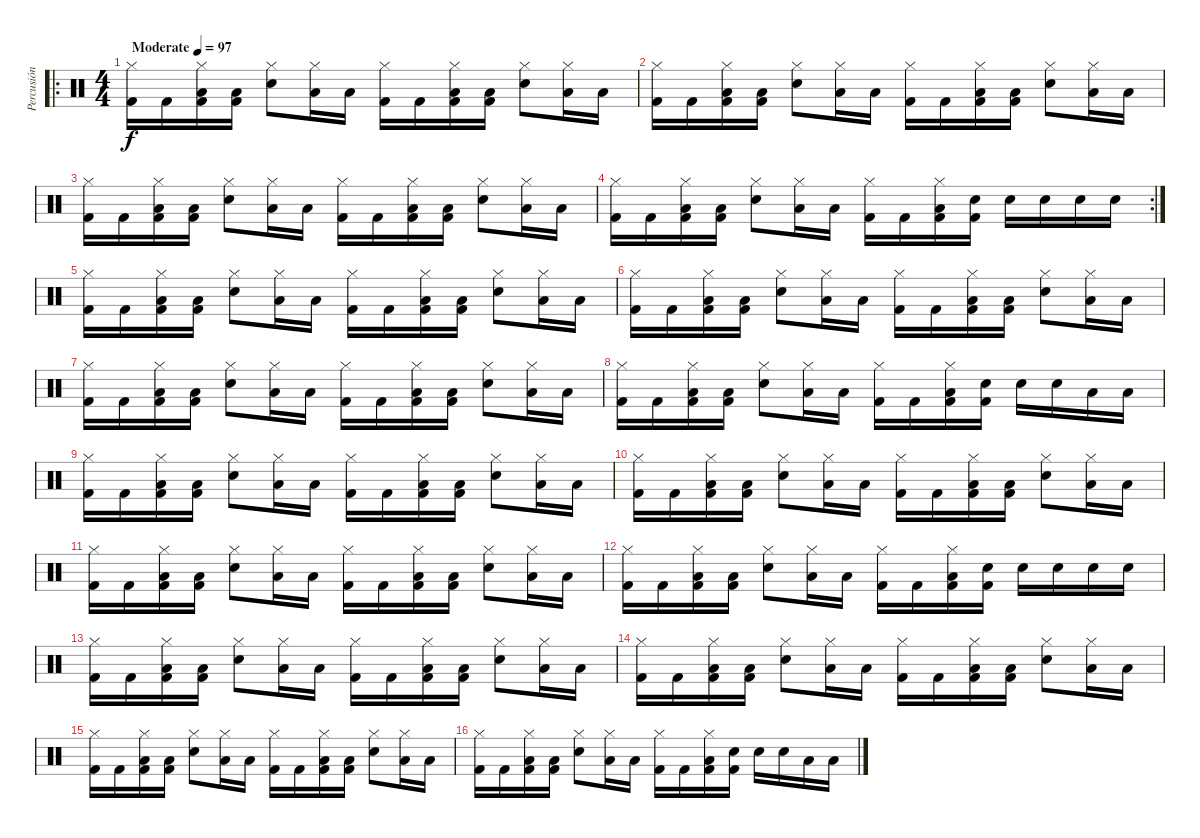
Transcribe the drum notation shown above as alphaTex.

\track ("Percusión" "Percusión") {instrument percussion}
\staff {score}
\articulation defaults
\ro
\ts (4 4)
\tempo (97 "Moderate")
\clef neutral
\ks c
("Hi-Hat (closed)" "Kick (hit) 2").16{dy f} "Kick (hit) 2".16 ("Hi-Hat (closed)" "Low Floor Tom (hit)" "Kick (hit) 2").16 ("Low Floor Tom (hit)" "Kick (hit) 2").16 ("Hi-Hat (closed)" "Snare (hit) 2").8 ("Hi-Hat (closed)" "Low Floor Tom (hit)").16 "Low Floor Tom (hit)".16 ("Hi-Hat (closed)" "Kick (hit) 2").16 "Kick (hit) 2".16 ("Hi-Hat (closed)" "Low Floor Tom (hit)" "Kick (hit) 2").16 ("Low Floor Tom (hit)" "Kick (hit) 2").16 ("Hi-Hat (closed)" "Snare (hit) 2").8 ("Hi-Hat (closed)" "Low Floor Tom (hit)").16 "Low Floor Tom (hit)".16 |
("Hi-Hat (closed)" "Kick (hit) 2").16 "Kick (hit) 2".16 ("Hi-Hat (closed)" "Low Floor Tom (hit)" "Kick (hit) 2").16 ("Low Floor Tom (hit)" "Kick (hit) 2").16 ("Hi-Hat (closed)" "Snare (hit) 2").8 ("Hi-Hat (closed)" "Low Floor Tom (hit)").16 "Low Floor Tom (hit)".16 ("Hi-Hat (closed)" "Kick (hit) 2").16 "Kick (hit) 2".16 ("Hi-Hat (closed)" "Low Floor Tom (hit)" "Kick (hit) 2").16 ("Low Floor Tom (hit)" "Kick (hit) 2").16 ("Hi-Hat (closed)" "Snare (hit) 2").8 ("Hi-Hat (closed)" "Low Floor Tom (hit)").16 "Low Floor Tom (hit)".16 |
("Hi-Hat (closed)" "Kick (hit) 2").16 "Kick (hit) 2".16 ("Hi-Hat (closed)" "Low Floor Tom (hit)" "Kick (hit) 2").16 ("Low Floor Tom (hit)" "Kick (hit) 2").16 ("Hi-Hat (closed)" "Snare (hit) 2").8 ("Hi-Hat (closed)" "Low Floor Tom (hit)").16 "Low Floor Tom (hit)".16 ("Hi-Hat (closed)" "Kick (hit) 2").16 "Kick (hit) 2".16 ("Hi-Hat (closed)" "Low Floor Tom (hit)" "Kick (hit) 2").16 ("Low Floor Tom (hit)" "Kick (hit) 2").16 ("Hi-Hat (closed)" "Snare (hit) 2").8 ("Hi-Hat (closed)" "Low Floor Tom (hit)").16 "Low Floor Tom (hit)".16 |
\rc 2
("Hi-Hat (closed)" "Kick (hit) 2").16 "Kick (hit) 2".16 ("Hi-Hat (closed)" "Low Floor Tom (hit)" "Kick (hit) 2").16 ("Low Floor Tom (hit)" "Kick (hit) 2").16 ("Hi-Hat (closed)" "Snare (hit) 2").8 ("Hi-Hat (closed)" "Low Floor Tom (hit)").16 "Low Floor Tom (hit)".16 ("Hi-Hat (closed)" "Kick (hit) 2").16 "Kick (hit) 2".16 ("Hi-Hat (closed)" "Low Floor Tom (hit)" "Kick (hit) 2").16 ("Snare (hit) 2" "Kick (hit) 2").16 "Snare (hit) 2".16 "Snare (hit) 2".16 "Snare (hit) 2".16 "Snare (hit) 2".16 |
("Hi-Hat (closed)" "Kick (hit) 2").16 "Kick (hit) 2".16 ("Hi-Hat (closed)" "Low Floor Tom (hit)" "Kick (hit) 2").16 ("Low Floor Tom (hit)" "Kick (hit) 2").16 ("Hi-Hat (closed)" "Snare (hit) 2").8 ("Hi-Hat (closed)" "Low Floor Tom (hit)").16 "Low Floor Tom (hit)".16 ("Hi-Hat (closed)" "Kick (hit) 2").16 "Kick (hit) 2".16 ("Hi-Hat (closed)" "Low Floor Tom (hit)" "Kick (hit) 2").16 ("Low Floor Tom (hit)" "Kick (hit) 2").16 ("Hi-Hat (closed)" "Snare (hit) 2").8 ("Hi-Hat (closed)" "Low Floor Tom (hit)").16 "Low Floor Tom (hit)".16 |
("Hi-Hat (closed)" "Kick (hit) 2").16 "Kick (hit) 2".16 ("Hi-Hat (closed)" "Low Floor Tom (hit)" "Kick (hit) 2").16 ("Low Floor Tom (hit)" "Kick (hit) 2").16 ("Hi-Hat (closed)" "Snare (hit) 2").8 ("Hi-Hat (closed)" "Low Floor Tom (hit)").16 "Low Floor Tom (hit)".16 ("Hi-Hat (closed)" "Kick (hit) 2").16 "Kick (hit) 2".16 ("Hi-Hat (closed)" "Low Floor Tom (hit)" "Kick (hit) 2").16 ("Low Floor Tom (hit)" "Kick (hit) 2").16 ("Hi-Hat (closed)" "Snare (hit) 2").8 ("Hi-Hat (closed)" "Low Floor Tom (hit)").16 "Low Floor Tom (hit)".16 |
("Hi-Hat (closed)" "Kick (hit) 2").16 "Kick (hit) 2".16 ("Hi-Hat (closed)" "Low Floor Tom (hit)" "Kick (hit) 2").16 ("Low Floor Tom (hit)" "Kick (hit) 2").16 ("Hi-Hat (closed)" "Snare (hit) 2").8 ("Hi-Hat (closed)" "Low Floor Tom (hit)").16 "Low Floor Tom (hit)".16 ("Hi-Hat (closed)" "Kick (hit) 2").16 "Kick (hit) 2".16 ("Hi-Hat (closed)" "Low Floor Tom (hit)" "Kick (hit) 2").16 ("Low Floor Tom (hit)" "Kick (hit) 2").16 ("Hi-Hat (closed)" "Snare (hit) 2").8 ("Hi-Hat (closed)" "Low Floor Tom (hit)").16 "Low Floor Tom (hit)".16 |
("Hi-Hat (closed)" "Kick (hit) 2").16 "Kick (hit) 2".16 ("Hi-Hat (closed)" "Low Floor Tom (hit)" "Kick (hit) 2").16 ("Low Floor Tom (hit)" "Kick (hit) 2").16 ("Hi-Hat (closed)" "Snare (hit) 2").8 ("Hi-Hat (closed)" "Low Floor Tom (hit)").16 "Low Floor Tom (hit)".16 ("Hi-Hat (closed)" "Kick (hit) 2").16 "Kick (hit) 2".16 ("Hi-Hat (closed)" "Low Floor Tom (hit)" "Kick (hit) 2").16 ("Snare (hit) 2" "Kick (hit) 2").16 "Snare (hit) 2".16 "Snare (hit) 2".16 "Low Floor Tom (hit)".16 "Low Floor Tom (hit)".16 |
("Hi-Hat (closed)" "Kick (hit) 2").16 "Kick (hit) 2".16 ("Hi-Hat (closed)" "Low Floor Tom (hit)" "Kick (hit) 2").16 ("Low Floor Tom (hit)" "Kick (hit) 2").16 ("Hi-Hat (closed)" "Snare (hit) 2").8 ("Hi-Hat (closed)" "Low Floor Tom (hit)").16 "Low Floor Tom (hit)".16 ("Hi-Hat (closed)" "Kick (hit) 2").16 "Kick (hit) 2".16 ("Hi-Hat (closed)" "Low Floor Tom (hit)" "Kick (hit) 2").16 ("Low Floor Tom (hit)" "Kick (hit) 2").16 ("Hi-Hat (closed)" "Snare (hit) 2").8 ("Hi-Hat (closed)" "Low Floor Tom (hit)").16 "Low Floor Tom (hit)".16 |
("Hi-Hat (closed)" "Kick (hit) 2").16 "Kick (hit) 2".16 ("Hi-Hat (closed)" "Low Floor Tom (hit)" "Kick (hit) 2").16 ("Low Floor Tom (hit)" "Kick (hit) 2").16 ("Hi-Hat (closed)" "Snare (hit) 2").8 ("Hi-Hat (closed)" "Low Floor Tom (hit)").16 "Low Floor Tom (hit)".16 ("Hi-Hat (closed)" "Kick (hit) 2").16 "Kick (hit) 2".16 ("Hi-Hat (closed)" "Low Floor Tom (hit)" "Kick (hit) 2").16 ("Low Floor Tom (hit)" "Kick (hit) 2").16 ("Hi-Hat (closed)" "Snare (hit) 2").8 ("Hi-Hat (closed)" "Low Floor Tom (hit)").16 "Low Floor Tom (hit)".16 |
("Hi-Hat (closed)" "Kick (hit) 2").16 "Kick (hit) 2".16 ("Hi-Hat (closed)" "Low Floor Tom (hit)" "Kick (hit) 2").16 ("Low Floor Tom (hit)" "Kick (hit) 2").16 ("Hi-Hat (closed)" "Snare (hit) 2").8 ("Hi-Hat (closed)" "Low Floor Tom (hit)").16 "Low Floor Tom (hit)".16 ("Hi-Hat (closed)" "Kick (hit) 2").16 "Kick (hit) 2".16 ("Hi-Hat (closed)" "Low Floor Tom (hit)" "Kick (hit) 2").16 ("Low Floor Tom (hit)" "Kick (hit) 2").16 ("Hi-Hat (closed)" "Snare (hit) 2").8 ("Hi-Hat (closed)" "Low Floor Tom (hit)").16 "Low Floor Tom (hit)".16 |
("Hi-Hat (closed)" "Kick (hit) 2").16 "Kick (hit) 2".16 ("Hi-Hat (closed)" "Low Floor Tom (hit)" "Kick (hit) 2").16 ("Low Floor Tom (hit)" "Kick (hit) 2").16 ("Hi-Hat (closed)" "Snare (hit) 2").8 ("Hi-Hat (closed)" "Low Floor Tom (hit)").16 "Low Floor Tom (hit)".16 ("Hi-Hat (closed)" "Kick (hit) 2").16 "Kick (hit) 2".16 ("Hi-Hat (closed)" "Low Floor Tom (hit)" "Kick (hit) 2").16 ("Snare (hit) 2" "Kick (hit) 2").16 "Snare (hit) 2".16 "Snare (hit) 2".16 "Snare (hit) 2".16 "Snare (hit) 2".16 |
("Hi-Hat (closed)" "Kick (hit) 2").16 "Kick (hit) 2".16 ("Hi-Hat (closed)" "Low Floor Tom (hit)" "Kick (hit) 2").16 ("Low Floor Tom (hit)" "Kick (hit) 2").16 ("Hi-Hat (closed)" "Snare (hit) 2").8 ("Hi-Hat (closed)" "Low Floor Tom (hit)").16 "Low Floor Tom (hit)".16 ("Hi-Hat (closed)" "Kick (hit) 2").16 "Kick (hit) 2".16 ("Hi-Hat (closed)" "Low Floor Tom (hit)" "Kick (hit) 2").16 ("Low Floor Tom (hit)" "Kick (hit) 2").16 ("Hi-Hat (closed)" "Snare (hit) 2").8 ("Hi-Hat (closed)" "Low Floor Tom (hit)").16 "Low Floor Tom (hit)".16 |
("Hi-Hat (closed)" "Kick (hit) 2").16 "Kick (hit) 2".16 ("Hi-Hat (closed)" "Low Floor Tom (hit)" "Kick (hit) 2").16 ("Low Floor Tom (hit)" "Kick (hit) 2").16 ("Hi-Hat (closed)" "Snare (hit) 2").8 ("Hi-Hat (closed)" "Low Floor Tom (hit)").16 "Low Floor Tom (hit)".16 ("Hi-Hat (closed)" "Kick (hit) 2").16 "Kick (hit) 2".16 ("Hi-Hat (closed)" "Low Floor Tom (hit)" "Kick (hit) 2").16 ("Low Floor Tom (hit)" "Kick (hit) 2").16 ("Hi-Hat (closed)" "Snare (hit) 2").8 ("Hi-Hat (closed)" "Low Floor Tom (hit)").16 "Low Floor Tom (hit)".16 |
("Hi-Hat (closed)" "Kick (hit) 2").16 "Kick (hit) 2".16 ("Hi-Hat (closed)" "Low Floor Tom (hit)" "Kick (hit) 2").16 ("Low Floor Tom (hit)" "Kick (hit) 2").16 ("Hi-Hat (closed)" "Snare (hit) 2").8 ("Hi-Hat (closed)" "Low Floor Tom (hit)").16 "Low Floor Tom (hit)".16 ("Hi-Hat (closed)" "Kick (hit) 2").16 "Kick (hit) 2".16 ("Hi-Hat (closed)" "Low Floor Tom (hit)" "Kick (hit) 2").16 ("Low Floor Tom (hit)" "Kick (hit) 2").16 ("Hi-Hat (closed)" "Snare (hit) 2").8 ("Hi-Hat (closed)" "Low Floor Tom (hit)").16 "Low Floor Tom (hit)".16 |
("Hi-Hat (closed)" "Kick (hit) 2").16 "Kick (hit) 2".16 ("Hi-Hat (closed)" "Low Floor Tom (hit)" "Kick (hit) 2").16 ("Low Floor Tom (hit)" "Kick (hit) 2").16 ("Hi-Hat (closed)" "Snare (hit) 2").8 ("Hi-Hat (closed)" "Low Floor Tom (hit)").16 "Low Floor Tom (hit)".16 ("Hi-Hat (closed)" "Kick (hit) 2").16 "Kick (hit) 2".16 ("Hi-Hat (closed)" "Low Floor Tom (hit)" "Kick (hit) 2").16 ("Snare (hit) 2" "Kick (hit) 2").16 "Snare (hit) 2".16 "Snare (hit) 2".16 "Low Floor Tom (hit)".16 "Low Floor Tom (hit)".16
